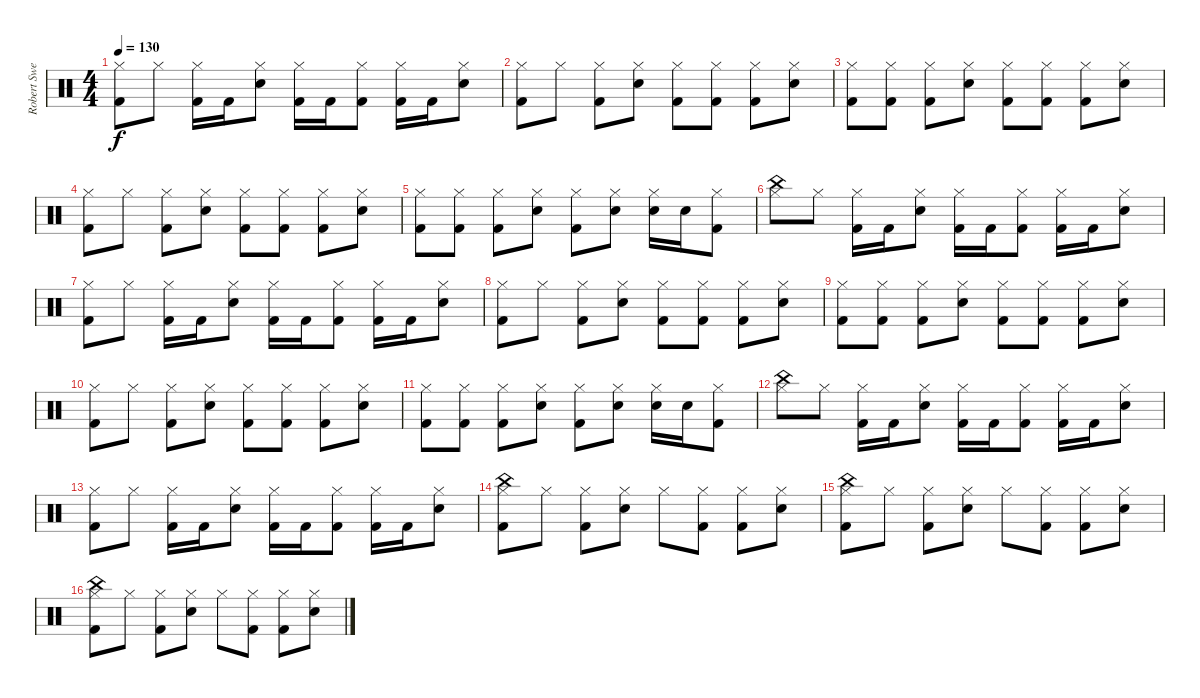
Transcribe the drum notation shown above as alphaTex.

\track ("Robert Sweet" "Robert Swe") {instrument percussion}
\staff {score}
\articulation defaults
\ts (4 4)
\tempo 130
\clef neutral
\ks c
("Hi-Hat (closed)" "Kick (hit) 2").8{dy f} "Hi-Hat (closed)".8 ("Hi-Hat (closed)" "Kick (hit) 2").16 "Kick (hit) 2".16 ("Hi-Hat (closed)" "Snare (hit) 2").8 ("Hi-Hat (closed)" "Kick (hit) 2").16 "Kick (hit) 2".16 ("Hi-Hat (closed)" "Kick (hit) 2").8 ("Hi-Hat (closed)" "Kick (hit) 2").16 "Kick (hit) 2".16 ("Hi-Hat (closed)" "Snare (hit) 2").8 |
("Hi-Hat (closed)" "Kick (hit) 2").8 "Hi-Hat (closed)".8 ("Hi-Hat (closed)" "Kick (hit) 2").8 ("Hi-Hat (closed)" "Snare (hit) 2").8 ("Hi-Hat (closed)" "Kick (hit) 2").8 ("Hi-Hat (closed)" "Kick (hit) 2").8 ("Hi-Hat (closed)" "Kick (hit) 2").8 ("Hi-Hat (closed)" "Snare (hit) 2").8 |
("Hi-Hat (closed)" "Kick (hit) 2").8 ("Hi-Hat (closed)" "Kick (hit) 2").8 ("Hi-Hat (closed)" "Kick (hit) 2").8 ("Hi-Hat (closed)" "Snare (hit) 2").8 ("Hi-Hat (closed)" "Kick (hit) 2").8 ("Hi-Hat (closed)" "Kick (hit) 2").8 ("Hi-Hat (closed)" "Kick (hit) 2").8 ("Hi-Hat (closed)" "Snare (hit) 2").8 |
("Hi-Hat (closed)" "Kick (hit) 2").8 "Hi-Hat (closed)".8 ("Hi-Hat (closed)" "Kick (hit) 2").8 ("Hi-Hat (closed)" "Snare (hit) 2").8 ("Hi-Hat (closed)" "Kick (hit) 2").8 ("Hi-Hat (closed)" "Kick (hit) 2").8 ("Hi-Hat (closed)" "Kick (hit) 2").8 ("Hi-Hat (closed)" "Snare (hit) 2").8 |
("Hi-Hat (closed)" "Kick (hit) 2").8 ("Hi-Hat (closed)" "Kick (hit) 2").8 ("Hi-Hat (closed)" "Kick (hit) 2").8 ("Hi-Hat (closed)" "Snare (hit) 2").8 ("Hi-Hat (closed)" "Kick (hit) 2").8 ("Hi-Hat (closed)" "Snare (hit) 2").8 ("Hi-Hat (closed)" "Snare (hit) 2").16 "Snare (hit) 2".16 ("Hi-Hat (closed)" "Kick (hit) 2").8 |
("Hi-Hat (closed)" "China (hit)").8 "Hi-Hat (closed)".8 ("Hi-Hat (closed)" "Kick (hit) 2").16 "Kick (hit) 2".16 ("Hi-Hat (closed)" "Snare (hit) 2").8 ("Hi-Hat (closed)" "Kick (hit) 2").16 "Kick (hit) 2".16 ("Hi-Hat (closed)" "Kick (hit) 2").8 ("Hi-Hat (closed)" "Kick (hit) 2").16 "Kick (hit) 2".16 ("Hi-Hat (closed)" "Snare (hit) 2").8 |
("Hi-Hat (closed)" "Kick (hit) 2").8 "Hi-Hat (closed)".8 ("Hi-Hat (closed)" "Kick (hit) 2").16 "Kick (hit) 2".16 ("Hi-Hat (closed)" "Snare (hit) 2").8 ("Hi-Hat (closed)" "Kick (hit) 2").16 "Kick (hit) 2".16 ("Hi-Hat (closed)" "Kick (hit) 2").8 ("Hi-Hat (closed)" "Kick (hit) 2").16 "Kick (hit) 2".16 ("Hi-Hat (closed)" "Snare (hit) 2").8 |
("Hi-Hat (closed)" "Kick (hit) 2").8 "Hi-Hat (closed)".8 ("Hi-Hat (closed)" "Kick (hit) 2").8 ("Hi-Hat (closed)" "Snare (hit) 2").8 ("Hi-Hat (closed)" "Kick (hit) 2").8 ("Hi-Hat (closed)" "Kick (hit) 2").8 ("Hi-Hat (closed)" "Kick (hit) 2").8 ("Hi-Hat (closed)" "Snare (hit) 2").8 |
("Hi-Hat (closed)" "Kick (hit) 2").8 ("Hi-Hat (closed)" "Kick (hit) 2").8 ("Hi-Hat (closed)" "Kick (hit) 2").8 ("Hi-Hat (closed)" "Snare (hit) 2").8 ("Hi-Hat (closed)" "Kick (hit) 2").8 ("Hi-Hat (closed)" "Kick (hit) 2").8 ("Hi-Hat (closed)" "Kick (hit) 2").8 ("Hi-Hat (closed)" "Snare (hit) 2").8 |
("Hi-Hat (closed)" "Kick (hit) 2").8 "Hi-Hat (closed)".8 ("Hi-Hat (closed)" "Kick (hit) 2").8 ("Hi-Hat (closed)" "Snare (hit) 2").8 ("Hi-Hat (closed)" "Kick (hit) 2").8 ("Hi-Hat (closed)" "Kick (hit) 2").8 ("Hi-Hat (closed)" "Kick (hit) 2").8 ("Hi-Hat (closed)" "Snare (hit) 2").8 |
("Hi-Hat (closed)" "Kick (hit) 2").8 ("Hi-Hat (closed)" "Kick (hit) 2").8 ("Hi-Hat (closed)" "Kick (hit) 2").8 ("Hi-Hat (closed)" "Snare (hit) 2").8 ("Hi-Hat (closed)" "Kick (hit) 2").8 ("Hi-Hat (closed)" "Snare (hit) 2").8 ("Hi-Hat (closed)" "Snare (hit) 2").16 "Snare (hit) 2".16 ("Hi-Hat (closed)" "Kick (hit) 2").8 |
("Hi-Hat (closed)" "China (hit)").8 "Hi-Hat (closed)".8 ("Hi-Hat (closed)" "Kick (hit) 2").16 "Kick (hit) 2".16 ("Hi-Hat (closed)" "Snare (hit) 2").8 ("Hi-Hat (closed)" "Kick (hit) 2").16 "Kick (hit) 2".16 ("Hi-Hat (closed)" "Kick (hit) 2").8 ("Hi-Hat (closed)" "Kick (hit) 2").16 "Kick (hit) 2".16 ("Hi-Hat (closed)" "Snare (hit) 2").8 |
("Hi-Hat (closed)" "Kick (hit) 2").8 "Hi-Hat (closed)".8 ("Hi-Hat (closed)" "Kick (hit) 2").16 "Kick (hit) 2".16 ("Hi-Hat (closed)" "Snare (hit) 2").8 ("Hi-Hat (closed)" "Kick (hit) 2").16 "Kick (hit) 2".16 ("Hi-Hat (closed)" "Kick (hit) 2").8 ("Hi-Hat (closed)" "Kick (hit) 2").16 "Kick (hit) 2".16 ("Hi-Hat (closed)" "Snare (hit) 2").8 |
("Hi-Hat (closed)" "Kick (hit) 2" "China (hit)").8 "Hi-Hat (closed)".8 ("Hi-Hat (closed)" "Kick (hit) 2").8 ("Hi-Hat (closed)" "Snare (hit) 2").8 "Hi-Hat (closed)".8 ("Hi-Hat (closed)" "Kick (hit) 2").8 ("Hi-Hat (closed)" "Kick (hit) 2").8 ("Hi-Hat (closed)" "Snare (hit) 2").8 |
("Hi-Hat (closed)" "Kick (hit) 2" "China (hit)").8 "Hi-Hat (closed)".8 ("Hi-Hat (closed)" "Kick (hit) 2").8 ("Hi-Hat (closed)" "Snare (hit) 2").8 "Hi-Hat (closed)".8 ("Hi-Hat (closed)" "Kick (hit) 2").8 ("Hi-Hat (closed)" "Kick (hit) 2").8 ("Hi-Hat (closed)" "Snare (hit) 2").8 |
("Hi-Hat (closed)" "Kick (hit) 2" "China (hit)").8 "Hi-Hat (closed)".8 ("Hi-Hat (closed)" "Kick (hit) 2").8 ("Hi-Hat (closed)" "Snare (hit) 2").8 "Hi-Hat (closed)".8 ("Hi-Hat (closed)" "Kick (hit) 2").8 ("Hi-Hat (closed)" "Kick (hit) 2").8 ("Hi-Hat (closed)" "Snare (hit) 2").8
